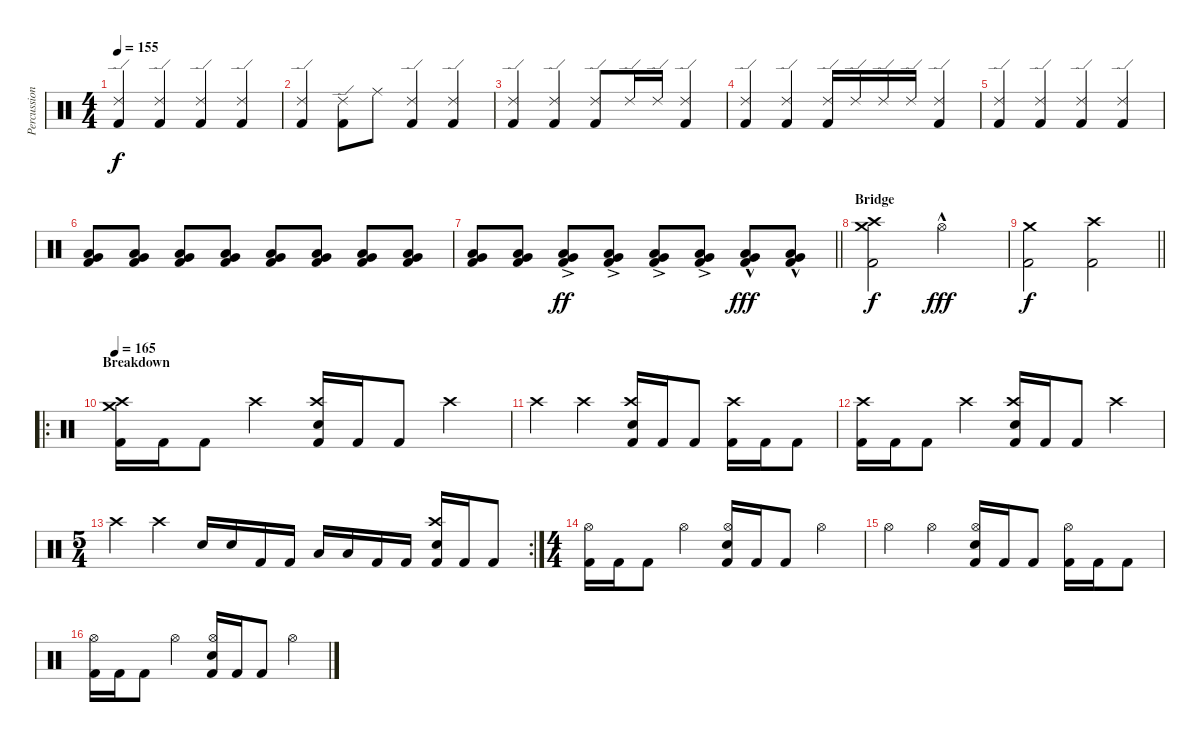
\track ("Percussion" "Percussion") {instrument percussion}
\staff {score}
\articulation defaults
\ts (4 4)
\tempo 155
\clef neutral
\ks c
("Ride (edge) 2" "Kick (hit) 2").4{dy f} ("Ride (edge) 2" "Kick (hit) 2").4 ("Ride (edge) 2" "Kick (hit) 2").4 ("Ride (edge) 2" "Kick (hit) 2").4 |
("Ride (edge) 2" "Kick (hit) 2").4 ("Ride (edge) 2" "Kick (hit) 2").8 "Ride (middle)".8 ("Ride (edge) 2" "Kick (hit) 2").4 ("Ride (edge) 2" "Kick (hit) 2").4 |
("Ride (edge) 2" "Kick (hit) 2").4 ("Ride (edge) 2" "Kick (hit) 2").4 ("Ride (edge) 2" "Kick (hit) 2").8 "Ride (edge) 2".16 "Ride (edge) 2".16 ("Ride (edge) 2" "Kick (hit) 2").4 |
("Ride (edge) 2" "Kick (hit) 2").4 ("Ride (edge) 2" "Kick (hit) 2").4 ("Ride (edge) 2" "Kick (hit) 2").16 "Ride (edge) 2".16 "Ride (edge) 2".16 "Ride (edge) 2".16 ("Ride (edge) 2" "Kick (hit) 2").4 |
("Ride (edge) 2" "Kick (hit) 2").4 ("Ride (edge) 2" "Kick (hit) 2").4 ("Ride (edge) 2" "Kick (hit) 2").4 ("Ride (edge) 2" "Kick (hit) 2").4 |
("Very Low Tom (hit)" "Low Floor Tom (hit)" "Kick (hit) 2").8{volume 8} ("Very Low Tom (hit)" "Low Floor Tom (hit)" "Kick (hit) 2").8 ("Very Low Tom (hit)" "Low Floor Tom (hit)" "Kick (hit) 2").8{volume 14} ("Very Low Tom (hit)" "Low Floor Tom (hit)" "Kick (hit) 2").8 ("Very Low Tom (hit)" "Low Floor Tom (hit)" "Kick (hit) 2").8 ("Very Low Tom (hit)" "Low Floor Tom (hit)" "Kick (hit) 2").8 ("Very Low Tom (hit)" "Low Floor Tom (hit)" "Kick (hit) 2").8 ("Very Low Tom (hit)" "Low Floor Tom (hit)" "Kick (hit) 2").8 |
\barLineRight lightlight
("Very Low Tom (hit)" "Low Floor Tom (hit)" "Kick (hit) 2").8 ("Very Low Tom (hit)" "Low Floor Tom (hit)" "Kick (hit) 2").8 ("Very Low Tom (hit)"{ac} "Low Floor Tom (hit)"{ac} "Kick (hit) 2"{ac}).8{dy ff} ("Very Low Tom (hit)"{ac} "Low Floor Tom (hit)"{ac} "Kick (hit) 2"{ac}).8 ("Very Low Tom (hit)"{ac} "Low Floor Tom (hit)"{ac} "Kick (hit) 2"{ac}).8 ("Very Low Tom (hit)"{ac} "Low Floor Tom (hit)"{ac} "Kick (hit) 2"{ac}).8 ("Very Low Tom (hit)"{hac} "Low Floor Tom (hit)"{hac} "Kick (hit) 2"{hac}).8{dy fff} ("Very Low Tom (hit)"{hac} "Low Floor Tom (hit)"{hac} "Kick (hit) 2"{hac}).8 |
\section ("" "Bridge")
("Crash medium (hit)" "Crash high (hit)" "Kick (hit) 2").2{dy f} "Hi-Hat (open)"{hac}.2{dy fff} |
\barLineRight lightlight
("Crash medium (hit)" "Kick (hit) 2").2{dy f} ("Crash high (hit)" "Kick (hit) 2").2 |
\ro
\section ("" "Breakdown")
\tempo 165
("Crash medium (hit)" "Crash high (hit)" "Kick (hit) 2").16 "Kick (hit) 2".16 "Kick (hit) 2".8 "Crash high (hit)".4 ("Crash high (hit)" "Electric Snare (hit)" "Kick (hit) 2").16 "Kick (hit) 2".16 "Kick (hit) 2".8 "Crash high (hit)".4 |
"Crash high (hit)".4 "Crash high (hit)".4 ("Crash high (hit)" "Electric Snare (hit)" "Kick (hit) 2").16 "Kick (hit) 2".16 "Kick (hit) 2".8 ("Crash high (hit)" "Kick (hit) 2").16 "Kick (hit) 2".16 "Kick (hit) 2".8 |
("Crash high (hit)" "Kick (hit) 2").16 "Kick (hit) 2".16 "Kick (hit) 2".8 "Crash high (hit)".4 ("Crash high (hit)" "Electric Snare (hit)" "Kick (hit) 2").16 "Kick (hit) 2".16 "Kick (hit) 2".8 "Crash high (hit)".4 |
\rc 2
\ts (5 4)
"Crash high (hit)".4 "Crash high (hit)".4 "Electric Snare (hit)".16 "Electric Snare (hit)".16 "Kick (hit) 2".16 "Kick (hit) 2".16 "Low Tom (hit)".16 "Low Tom (hit)".16 "Kick (hit) 2".16 "Kick (hit) 2".16 ("Crash high (hit)" "Electric Snare (hit)" "Kick (hit) 2").16 "Kick (hit) 2".16 "Kick (hit) 2".8 |
\ts (4 4)
("Hi-Hat (open)" "Kick (hit) 2").16 "Kick (hit) 2".16 "Kick (hit) 2".8 "Hi-Hat (open)".4 ("Hi-Hat (open)" "Electric Snare (hit)" "Kick (hit) 2").16 "Kick (hit) 2".16 "Kick (hit) 2".8 "Hi-Hat (open)".4 |
"Hi-Hat (open)".4 "Hi-Hat (open)".4 ("Hi-Hat (open)" "Electric Snare (hit)" "Kick (hit) 2").16 "Kick (hit) 2".16 "Kick (hit) 2".8 ("Hi-Hat (open)" "Kick (hit) 2").16 "Kick (hit) 2".16 "Kick (hit) 2".8 |
("Hi-Hat (open)" "Kick (hit) 2").16 "Kick (hit) 2".16 "Kick (hit) 2".8 "Hi-Hat (open)".4 ("Hi-Hat (open)" "Electric Snare (hit)" "Kick (hit) 2").16 "Kick (hit) 2".16 "Kick (hit) 2".8 "Hi-Hat (open)".4
